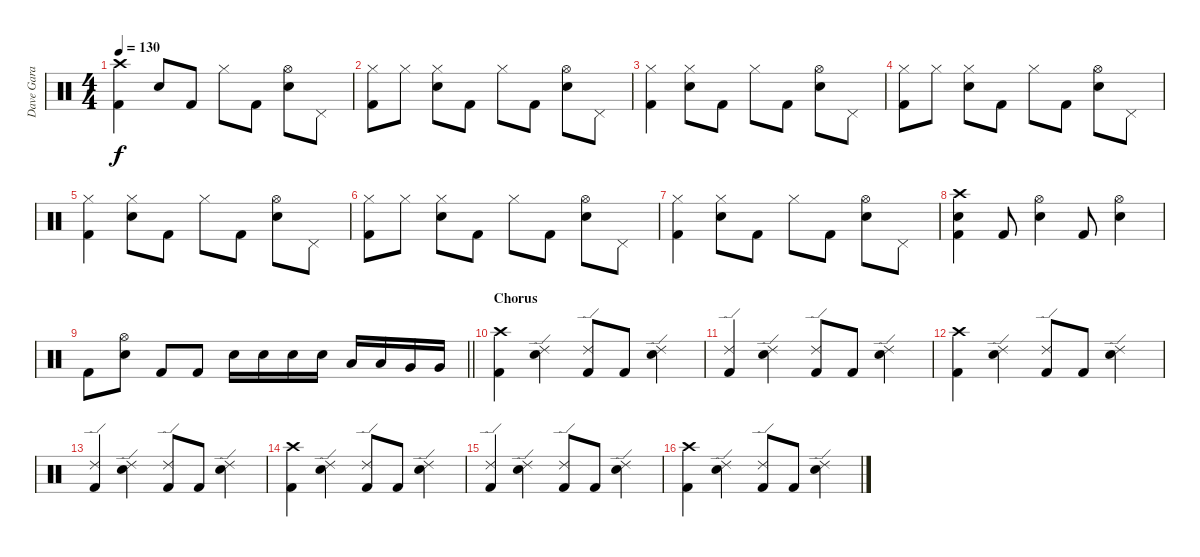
\track ("Dave Gara" "Dave Gara") {instrument percussion}
\staff {score}
\articulation defaults
\ts (4 4)
\tempo 130
\clef neutral
\ks c
("Crash high (hit)" "Kick (hit) 2").4{dy f} "Electric Snare (hit)".8 "Kick (hit) 2".8 "Hi-Hat (closed)".8 "Kick (hit) 2".8 ("Hi-Hat (open)" "Electric Snare (hit)").8 "Pedal Hi-Hat (hit)".8 |
("Hi-Hat (closed)" "Kick (hit) 2").8 "Hi-Hat (closed)".8 ("Hi-Hat (closed)" "Electric Snare (hit)").8 "Kick (hit) 2".8 "Hi-Hat (closed)".8 "Kick (hit) 2".8 ("Hi-Hat (open)" "Electric Snare (hit)").8 "Pedal Hi-Hat (hit)".8 |
("Hi-Hat (closed)" "Kick (hit) 2").4 ("Hi-Hat (closed)" "Electric Snare (hit)").8 "Kick (hit) 2".8 "Hi-Hat (closed)".8 "Kick (hit) 2".8 ("Hi-Hat (open)" "Electric Snare (hit)").8 "Pedal Hi-Hat (hit)".8 |
("Hi-Hat (closed)" "Kick (hit) 2").8 "Hi-Hat (closed)".8 ("Hi-Hat (closed)" "Electric Snare (hit)").8 "Kick (hit) 2".8 "Hi-Hat (closed)".8 "Kick (hit) 2".8 ("Hi-Hat (open)" "Electric Snare (hit)").8 "Pedal Hi-Hat (hit)".8 |
("Hi-Hat (closed)" "Kick (hit) 2").4 ("Hi-Hat (closed)" "Electric Snare (hit)").8 "Kick (hit) 2".8 "Hi-Hat (closed)".8 "Kick (hit) 2".8 ("Hi-Hat (open)" "Electric Snare (hit)").8 "Pedal Hi-Hat (hit)".8 |
("Hi-Hat (closed)" "Kick (hit) 2").8 "Hi-Hat (closed)".8 ("Hi-Hat (closed)" "Electric Snare (hit)").8 "Kick (hit) 2".8 "Hi-Hat (closed)".8 "Kick (hit) 2".8 ("Hi-Hat (open)" "Electric Snare (hit)").8 "Pedal Hi-Hat (hit)".8 |
("Hi-Hat (closed)" "Kick (hit) 2").4 ("Hi-Hat (closed)" "Electric Snare (hit)").8 "Kick (hit) 2".8 "Hi-Hat (closed)".8 "Kick (hit) 2".8 ("Hi-Hat (open)" "Electric Snare (hit)").8 "Pedal Hi-Hat (hit)".8 |
("Crash high (hit)" "Electric Snare (hit)" "Kick (hit) 2").4 "Kick (hit) 2".8 ("Hi-Hat (open)" "Electric Snare (hit)").4 "Kick (hit) 2".8 ("Hi-Hat (open)" "Electric Snare (hit)").4 |
\barLineRight lightlight "Kick (hit) 2".8
("Hi-Hat (open)" "Electric Snare (hit)").8 "Kick (hit) 2".8 "Kick (hit) 2".8 "Electric Snare (hit)".16 "Electric Snare (hit)".16 "Electric Snare (hit)".16 "Electric Snare (hit)".16 "Low Tom (hit)".16 "Low Tom (hit)".16 "Very Low Tom (hit)".16 "Very Low Tom (hit)".16 |
\section ("" "Chorus")
("Crash high (hit)" "Kick (hit) 2").4 ("Ride (edge) 2" "Electric Snare (hit)").4 ("Ride (edge) 2" "Kick (hit) 2").8 "Kick (hit) 2".8 ("Ride (edge) 2" "Electric Snare (hit)").4 |
("Ride (edge) 2" "Kick (hit) 2").4 ("Ride (edge) 2" "Electric Snare (hit)").4 ("Ride (edge) 2" "Kick (hit) 2").8 "Kick (hit) 2".8 ("Ride (edge) 2" "Electric Snare (hit)").4 |
("Crash high (hit)" "Kick (hit) 2").4 ("Ride (edge) 2" "Electric Snare (hit)").4 ("Ride (edge) 2" "Kick (hit) 2").8 "Kick (hit) 2".8 ("Ride (edge) 2" "Electric Snare (hit)").4 |
("Ride (edge) 2" "Kick (hit) 2").4 ("Ride (edge) 2" "Electric Snare (hit)").4 ("Ride (edge) 2" "Kick (hit) 2").8 "Kick (hit) 2".8 ("Ride (edge) 2" "Electric Snare (hit)").4 |
("Crash high (hit)" "Kick (hit) 2").4 ("Ride (edge) 2" "Electric Snare (hit)").4 ("Ride (edge) 2" "Kick (hit) 2").8 "Kick (hit) 2".8 ("Ride (edge) 2" "Electric Snare (hit)").4 |
("Ride (edge) 2" "Kick (hit) 2").4 ("Ride (edge) 2" "Electric Snare (hit)").4 ("Ride (edge) 2" "Kick (hit) 2").8 "Kick (hit) 2".8 ("Ride (edge) 2" "Electric Snare (hit)").4 |
("Crash high (hit)" "Kick (hit) 2").4 ("Ride (edge) 2" "Electric Snare (hit)").4 ("Ride (edge) 2" "Kick (hit) 2").8 "Kick (hit) 2".8 ("Ride (edge) 2" "Electric Snare (hit)").4
